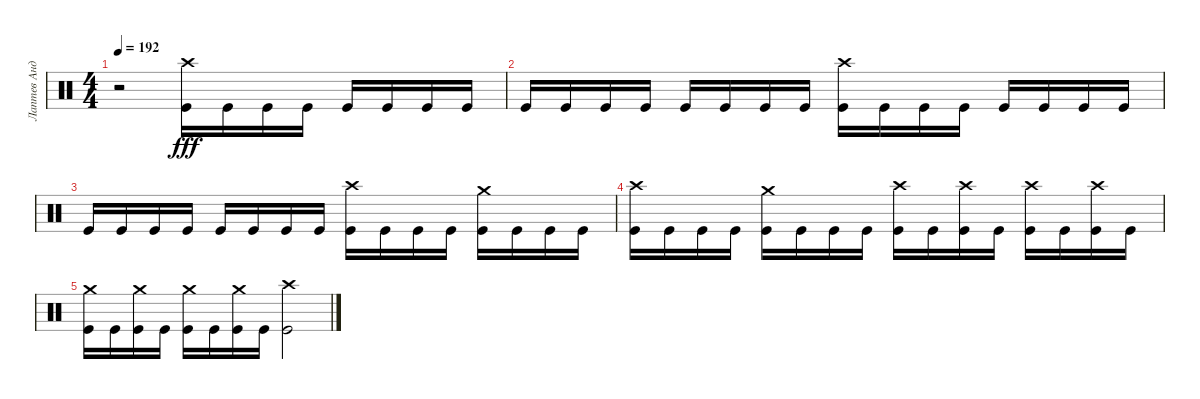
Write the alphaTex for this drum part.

\track ("Лаптев Андрей" "Лаптев Анд") {instrument percussion}
\staff {score}
\articulation defaults
\ts (4 4)
\tempo 192
\clef neutral
\ks c
r.2{dy fff} ("Kick (hit)" "Crash high (hit)").16 "Kick (hit)".16 "Kick (hit)".16 "Kick (hit)".16 "Kick (hit)".16 "Kick (hit)".16 "Kick (hit)".16 "Kick (hit)".16 |
"Kick (hit)".16 "Kick (hit)".16 "Kick (hit)".16 "Kick (hit)".16 "Kick (hit)".16 "Kick (hit)".16 "Kick (hit)".16 "Kick (hit)".16 ("Kick (hit)" "Crash high (hit)").16 "Kick (hit)".16 "Kick (hit)".16 "Kick (hit)".16 "Kick (hit)".16 "Kick (hit)".16 "Kick (hit)".16 "Kick (hit)".16 |
"Kick (hit)".16 "Kick (hit)".16 "Kick (hit)".16 "Kick (hit)".16 "Kick (hit)".16 "Kick (hit)".16 "Kick (hit)".16 "Kick (hit)".16 ("Kick (hit)" "Crash high (hit)").16 "Kick (hit)".16 "Kick (hit)".16 "Kick (hit)".16 ("Crash medium (hit)" "Kick (hit)").16 "Kick (hit)".16 "Kick (hit)".16 "Kick (hit)".16 |
("Kick (hit)" "Crash high (hit)").16 "Kick (hit)".16 "Kick (hit)".16 "Kick (hit)".16 ("Kick (hit)" "Crash medium (hit)").16 "Kick (hit)".16 "Kick (hit)".16 "Kick (hit)".16 ("Kick (hit)" "Crash high (hit)").16 "Kick (hit)".16 ("Crash high (hit)" "Kick (hit)").16 "Kick (hit)".16 ("Crash high (hit)" "Kick (hit)").16 "Kick (hit)".16 ("Kick (hit)" "Crash high (hit)").16 "Kick (hit)".16 |
("Kick (hit)" "Crash medium (hit)").16 "Kick (hit)".16 ("Crash medium (hit)" "Kick (hit)").16 "Kick (hit)".16 ("Kick (hit)" "Crash medium (hit)").16 "Kick (hit)".16 ("Crash medium (hit)" "Kick (hit)").16 "Kick (hit)".16 ("Crash high (hit)" "Kick (hit)").2
